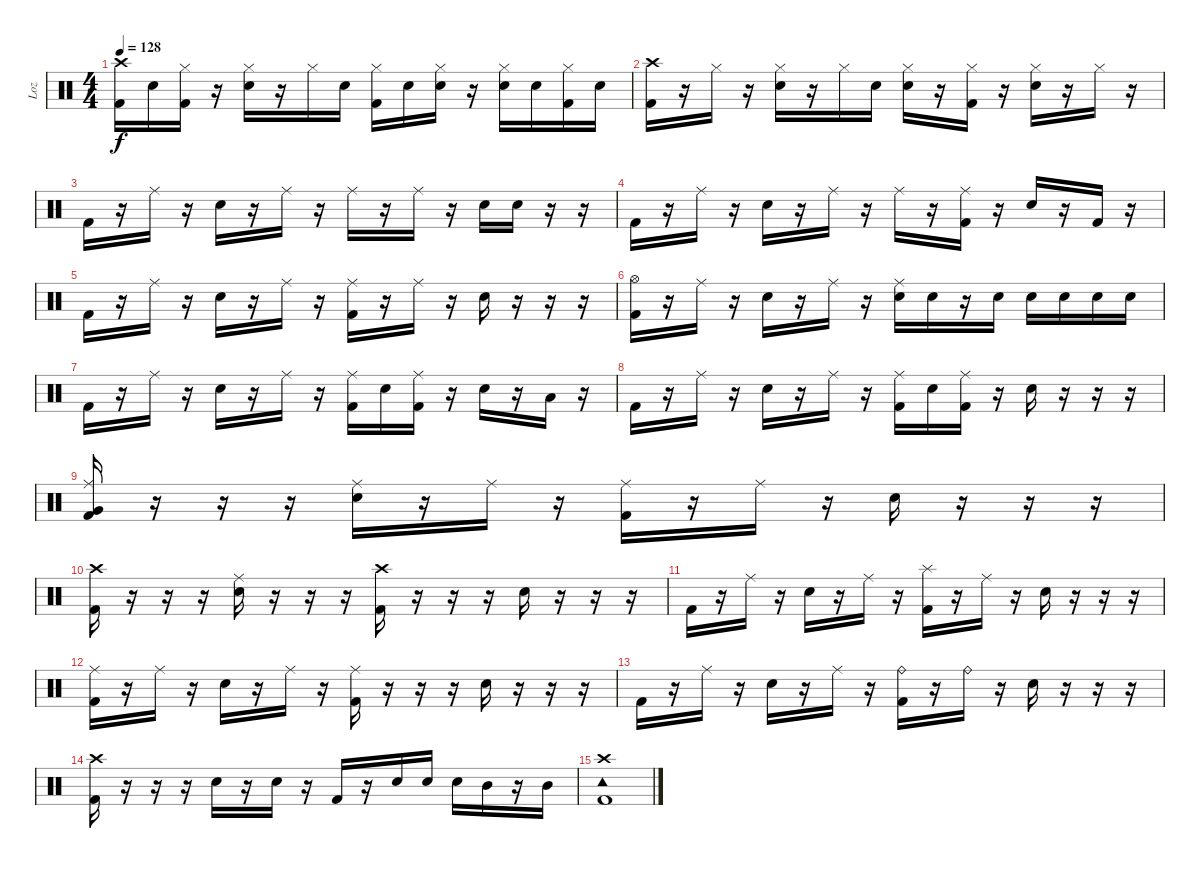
\track ("Loz" "Loz") {instrument percussion}
\staff {score}
\articulation defaults
\ts (4 4)
\tempo 128
\clef neutral
\ks c
("Crash high (hit)" "Kick (hit) 2").16{dy f} "Snare (hit) 2".16 ("Hi-Hat (closed)" "Kick (hit) 2").16 r.16 ("Hi-Hat (closed)" "Snare (hit) 2").16 r.16 "Hi-Hat (closed)".16 "Snare (hit) 2".16 ("Hi-Hat (closed)" "Kick (hit) 2").16 "Snare (hit) 2".16 ("Hi-Hat (closed)" "Snare (hit) 2").16 r.16 ("Hi-Hat (closed)" "Snare (hit) 2").16 "Snare (hit) 2".16 ("Hi-Hat (closed)" "Kick (hit) 2").16 "Snare (hit) 2".16 |
("Crash high (hit)" "Kick (hit) 2").16 r.16 "Hi-Hat (closed)".16 r.16 ("Hi-Hat (closed)" "Snare (hit) 2").16 r.16 "Hi-Hat (closed)".16 "Snare (hit) 2".16 ("Hi-Hat (closed)" "Snare (hit) 2").16 r.16 ("Hi-Hat (closed)" "Kick (hit) 2").16 r.16 ("Hi-Hat (closed)" "Snare (hit) 2").16 r.16 "Hi-Hat (closed)".16 r.16 |
"Kick (hit) 2".16 r.16 "Ride (middle)".16 r.16 "Snare (hit) 2".16 r.16 "Ride (middle)".16 r.16 "Ride (middle)".16 r.16 "Ride (middle)".16 r.16 "Snare (hit) 2".16 "Snare (hit) 2".16 r.16 r.16 |
"Kick (hit) 2".16 r.16 "Ride (middle)".16 r.16 "Snare (hit) 2".16 r.16 "Ride (middle)".16 r.16 "Ride (middle)".16 r.16 ("Ride (middle)" "Kick (hit) 2").16 r.16 "Snare (hit) 2".16 r.16 "Kick (hit) 2".16 r.16 |
"Kick (hit) 2".16 r.16 "Ride (middle)".16 r.16 "Snare (hit) 2".16 r.16 "Ride (middle)".16 r.16 ("Ride (middle)" "Kick (hit) 2").16 r.16 "Ride (middle)".16 r.16 "Snare (hit) 2".16 r.16 r.16 r.16 |
("Hi-Hat (open)" "Kick (hit) 2").16 r.16 "Ride (middle)".16 r.16 "Snare (hit) 2".16 r.16 "Ride (middle)".16 r.16 ("Ride (middle)" "Snare (hit) 2").16 "Snare (hit) 2".16 r.16 "Snare (hit) 2".16 "Snare (hit) 2".16 "Snare (hit) 2".16 "Snare (hit) 2".16 "Snare (hit) 2".16 |
"Kick (hit) 2".16 r.16 "Ride (middle)".16 r.16 "Snare (hit) 2".16 r.16 "Ride (middle)".16 r.16 ("Ride (middle)" "Kick (hit) 2").16 "Snare (hit) 2".16 ("Ride (middle)" "Kick (hit) 2").16 r.16 "Snare (hit) 2".16 r.16 "Low Floor Tom (hit)".16 r.16 |
"Kick (hit) 2".16 r.16 "Ride (middle)".16 r.16 "Snare (hit) 2".16 r.16 "Ride (middle)".16 r.16 ("Ride (middle)" "Kick (hit) 2").16 "Snare (hit) 2".16 ("Ride (middle)" "Kick (hit) 2").16 r.16 "Snare (hit) 2".16 r.16 r.16 r.16 |
("Ride (middle)" "Very Low Tom (hit)" "Kick (hit) 2").16 r.16 r.16 r.16 ("Ride (middle)" "Snare (hit) 2").16 r.16 "Ride (middle)".16 r.16 ("Ride (middle)" "Kick (hit) 2").16 r.16 "Ride (middle)".16 r.16 "Snare (hit) 2".16 r.16 r.16 r.16 |
("Crash high (hit)" "Kick (hit) 2").16 r.16 r.16 r.16 ("Ride (middle)" "Snare (hit) 2").16 r.16 r.16 r.16 ("Crash high (hit)" "Kick (hit) 2").16 r.16 r.16 r.16 "Snare (hit) 2".16 r.16 r.16 r.16 |
"Kick (hit) 2".16 r.16 "Ride (middle)".16 r.16 "Snare (hit) 2".16 r.16 "Ride (middle)".16 r.16 ("Splash (hit)" "Kick (hit) 2").16 r.16 "Ride (middle)".16 r.16 "Snare (hit) 2".16 r.16 r.16 r.16 |
("Ride (middle)" "Kick (hit) 2").16 r.16 "Ride (middle)".16 r.16 "Snare (hit) 2".16 r.16 "Ride (middle)".16 r.16 ("Ride (middle)" "Kick (hit) 2").16 r.16 r.16 r.16 "Snare (hit) 2".16 r.16 r.16 r.16 |
"Kick (hit) 2".16 r.16 "Ride (middle)".16 r.16 "Snare (hit) 2".16 r.16 "Ride (middle)".16 r.16 ("Ride (bell)" "Kick (hit) 2").16 r.16 "Ride (bell)".16 r.16 "Snare (hit) 2".16 r.16 r.16 r.16 |
("Crash high (hit)" "Kick (hit) 2").16 r.16 r.16 r.16 "Snare (hit) 2".16 r.16 "Snare (hit) 2".16 r.16 "Kick (hit) 2".16 r.16 "Snare (hit) 2".16 "Snare (hit) 2".16 "Snare (hit) 2".16 "Mid Tom (hit)".16 r.16 "Mid Tom (hit)".16 |
("Crash high (hit)" "Tambourine (hit)" "Kick (hit) 2").1
